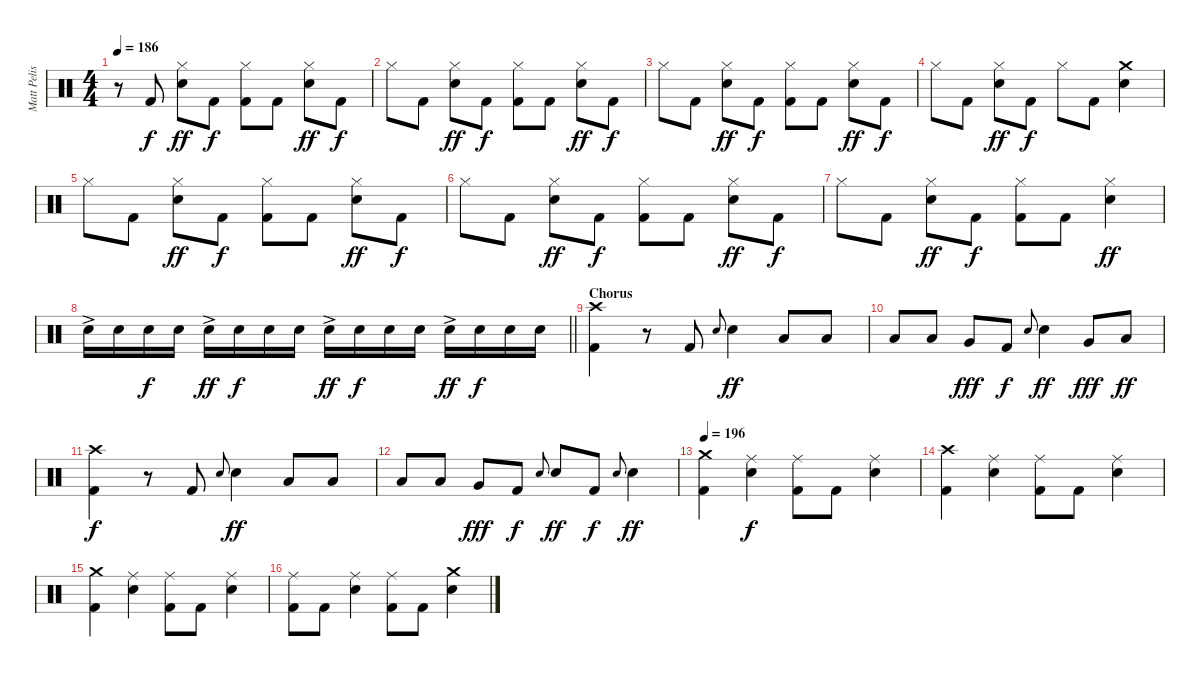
\track ("Matt Pelissier" "Matt Pelis") {instrument percussion}
\staff {score}
\articulation defaults
\ts (4 4)
\tempo 186
\clef neutral
\ks c
r.8{dy f} "Kick (hit) 2".8 ("Hi-Hat (closed)" "Snare (hit) 2").8{dy ff} "Kick (hit) 2".8{dy f} ("Hi-Hat (closed)" "Kick (hit) 2").8 "Kick (hit) 2".8 ("Hi-Hat (closed)" "Snare (hit) 2").8{dy ff} "Kick (hit) 2".8{dy f} |
"Hi-Hat (closed)".8 "Kick (hit) 2".8 ("Hi-Hat (closed)" "Snare (hit) 2").8{dy ff} "Kick (hit) 2".8{dy f} ("Hi-Hat (closed)" "Kick (hit) 2").8 "Kick (hit) 2".8 ("Hi-Hat (closed)" "Snare (hit) 2").8{dy ff} "Kick (hit) 2".8{dy f} |
"Hi-Hat (closed)".8 "Kick (hit) 2".8 ("Hi-Hat (closed)" "Snare (hit) 2").8{dy ff} "Kick (hit) 2".8{dy f} ("Hi-Hat (closed)" "Kick (hit) 2").8 "Kick (hit) 2".8 ("Hi-Hat (closed)" "Snare (hit) 2").8{dy ff} "Kick (hit) 2".8{dy f} |
"Hi-Hat (closed)".8 "Kick (hit) 2".8 ("Hi-Hat (closed)" "Snare (hit) 2").8{dy ff} "Kick (hit) 2".8{dy f} "Hi-Hat (closed)".8 "Kick (hit) 2".8 ("Crash medium (hit)" "Snare (hit) 2").4 |
"Hi-Hat (closed)".8 "Kick (hit) 2".8 ("Hi-Hat (closed)" "Snare (hit) 2").8{dy ff} "Kick (hit) 2".8{dy f} ("Hi-Hat (closed)" "Kick (hit) 2").8 "Kick (hit) 2".8 ("Hi-Hat (closed)" "Snare (hit) 2").8{dy ff} "Kick (hit) 2".8{dy f} |
"Hi-Hat (closed)".8 "Kick (hit) 2".8 ("Hi-Hat (closed)" "Snare (hit) 2").8{dy ff} "Kick (hit) 2".8{dy f} ("Hi-Hat (closed)" "Kick (hit) 2").8 "Kick (hit) 2".8 ("Hi-Hat (closed)" "Snare (hit) 2").8{dy ff} "Kick (hit) 2".8{dy f} |
"Hi-Hat (closed)".8 "Kick (hit) 2".8 ("Hi-Hat (closed)" "Snare (hit) 2").8{dy ff} "Kick (hit) 2".8{dy f} ("Hi-Hat (closed)" "Kick (hit) 2").8 "Kick (hit) 2".8 ("Hi-Hat (closed)" "Snare (hit) 2").4{dy ff} |
\barLineRight lightlight "Snare (hit) 2"{ac}.16 "Snare (hit) 2".16 "Snare (hit) 2".16{dy f} "Snare (hit) 2".16 "Snare (hit) 2"{ac}.16{dy ff} "Snare (hit) 2".16{dy f} "Snare (hit) 2".16 "Snare (hit) 2".16 "Snare (hit) 2"{ac}.16{dy ff} "Snare (hit) 2".16{dy f} "Snare (hit) 2".16 "Snare (hit) 2".16 "Snare (hit) 2"{ac}.16{dy ff} "Snare (hit) 2".16{dy f} "Snare (hit) 2".16 "Snare (hit) 2".16
|
\section ("" "Chorus")
("Crash high (hit)" "Kick (hit) 2").4 r.8 "Kick (hit) 2".8 "Snare (hit) 2".8{gr onbeat} "Snare (hit) 2".4{dy ff} "Low Tom (hit)".8 "Low Tom (hit)".8 |
"Low Tom (hit)".8 "Low Tom (hit)".8 "Very Low Tom (hit)".8{dy fff} "Kick (hit) 2".8{dy f} "Snare (hit) 2".8{gr onbeat} "Snare (hit) 2".4{dy ff} "Very Low Tom (hit)".8{dy fff} "Low Tom (hit)".8{dy ff} |
("Crash high (hit)" "Kick (hit) 2").4{dy f} r.8 "Kick (hit) 2".8 "Snare (hit) 2".8{gr onbeat} "Snare (hit) 2".4{dy ff} "Low Tom (hit)".8 "Low Tom (hit)".8 |
"Low Tom (hit)".8 "Low Tom (hit)".8 "Very Low Tom (hit)".8{dy fff} "Kick (hit) 2".8{dy f} "Snare (hit) 2".8{gr onbeat} "Snare (hit) 2".8{dy ff} "Kick (hit) 2".8{dy f} "Snare (hit) 2".8{gr onbeat} "Snare (hit) 2".4{dy ff} |
\tempo 196
("Crash medium (hit)" "Kick (hit) 2").4 ("Ride (middle)" "Snare (hit) 2").4{dy f} ("Ride (middle)" "Kick (hit) 2").8 "Kick (hit) 2".8 ("Ride (middle)" "Snare (hit) 2").4 |
("Crash high (hit)" "Kick (hit) 2").4 ("Ride (middle)" "Snare (hit) 2").4 ("Ride (middle)" "Kick (hit) 2").8 "Kick (hit) 2".8 ("Ride (middle)" "Snare (hit) 2").4 |
("Crash medium (hit)" "Kick (hit) 2").4 ("Ride (middle)" "Snare (hit) 2").4 ("Ride (middle)" "Kick (hit) 2").8 "Kick (hit) 2".8 ("Ride (middle)" "Snare (hit) 2").4 |
("Ride (middle)" "Kick (hit) 2").8 "Kick (hit) 2".8 ("Ride (middle)" "Snare (hit) 2").4 ("Ride (middle)" "Kick (hit) 2").8 "Kick (hit) 2".8 ("Crash medium (hit)" "Snare (hit) 2").4
